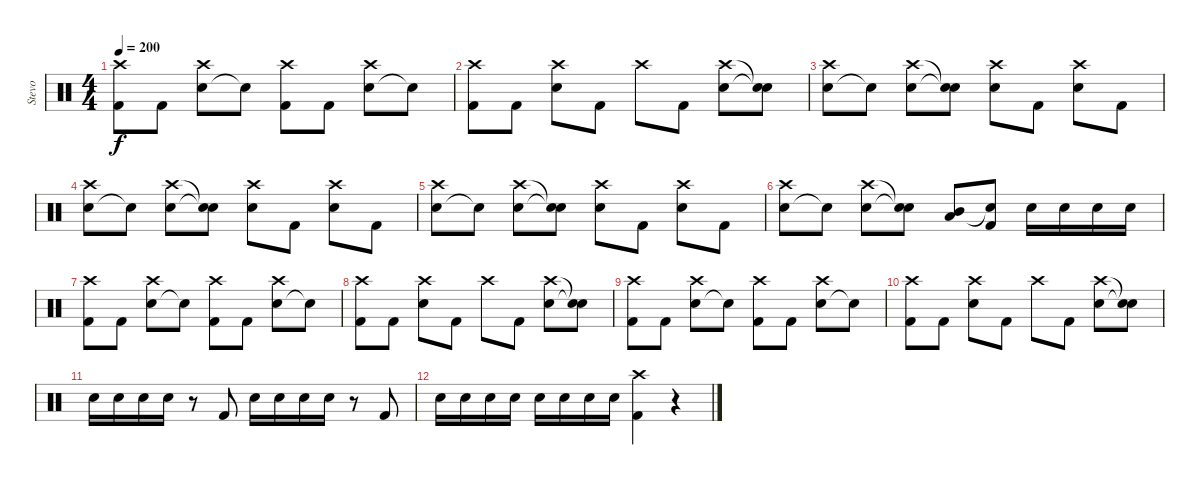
\track ("Stevo" "Stevo") {instrument percussion}
\staff {score}
\articulation defaults
\ts (4 4)
\tempo 200
\clef neutral
\ks c
("Kick (hit) 2" "Crash high (hit)").8{dy f} "Kick (hit) 2".8 ("Snare (hit) 2" "Crash high (hit)").8 "Snare (hit)"{t}.8 ("Kick (hit) 2" "Crash high (hit)").8 "Kick (hit) 2".8 ("Snare (hit) 2" "Crash high (hit)").8 "Snare (hit)"{t}.8 |
("Kick (hit) 2" "Crash high (hit)").8 "Kick (hit) 2".8 ("Snare (hit) 2" "Crash high (hit)").8 "Kick (hit) 2".8 "Crash high (hit)".8 "Kick (hit) 2".8 ("Snare (hit) 2" "Crash high (hit)").8 ("Snare (hit)"{t} "Snare (hit)"{t}).8 |
("Snare (hit) 2" "Crash high (hit)").8 "Snare (hit)"{t}.8 ("Snare (hit) 2" "Crash high (hit)").8 ("Snare (hit)"{t} "Snare (hit)"{t}).8 ("Snare (hit) 2" "Crash high (hit)").8 "Kick (hit) 2".8 ("Snare (hit) 2" "Crash high (hit)").8 "Kick (hit) 2".8 |
("Snare (hit) 2" "Crash high (hit)").8 "Snare (hit)"{t}.8 ("Snare (hit) 2" "Crash high (hit)").8 ("Snare (hit)"{t} "Snare (hit)"{t}).8 ("Snare (hit) 2" "Crash high (hit)").8 "Kick (hit) 2".8 ("Snare (hit) 2" "Crash high (hit)").8 "Kick (hit) 2".8 |
("Snare (hit) 2" "Crash high (hit)").8 "Snare (hit)"{t}.8 ("Snare (hit) 2" "Crash high (hit)").8 ("Snare (hit)"{t} "Snare (hit)"{t}).8 ("Snare (hit) 2" "Crash high (hit)").8 "Kick (hit) 2".8 ("Snare (hit) 2" "Crash high (hit)").8 "Kick (hit) 2".8 |
("Snare (hit) 2" "Crash high (hit)").8 "Snare (hit)"{t}.8 ("Snare (hit) 2" "Crash high (hit)").8 ("Snare (hit)"{t} "Snare (hit)"{t}).8 ("Mid Tom (hit)" "Low Tom (hit)").8 ("Kick (hit) 2" "Snare (hit) 2"{t}).8 "Snare (hit) 2".16 "Snare (hit) 2".16 "Snare (hit) 2".16 "Snare (hit) 2".16 |
("Kick (hit) 2" "Crash high (hit)").8 "Kick (hit) 2".8 ("Snare (hit) 2" "Crash high (hit)").8 "Snare (hit)"{t}.8 ("Kick (hit) 2" "Crash high (hit)").8 "Kick (hit) 2".8 ("Snare (hit) 2" "Crash high (hit)").8 "Snare (hit)"{t}.8 |
("Kick (hit) 2" "Crash high (hit)").8 "Kick (hit) 2".8 ("Snare (hit) 2" "Crash high (hit)").8 "Kick (hit) 2".8 "Crash high (hit)".8 "Kick (hit) 2".8 ("Snare (hit) 2" "Crash high (hit)").8 ("Snare (hit)"{t} "Snare (hit)"{t}).8 |
("Kick (hit) 2" "Crash high (hit)").8 "Kick (hit) 2".8 ("Snare (hit) 2" "Crash high (hit)").8 "Snare (hit)"{t}.8 ("Kick (hit) 2" "Crash high (hit)").8 "Kick (hit) 2".8 ("Snare (hit) 2" "Crash high (hit)").8 "Snare (hit)"{t}.8 |
("Kick (hit) 2" "Crash high (hit)").8 "Kick (hit) 2".8 ("Snare (hit) 2" "Crash high (hit)").8 "Kick (hit) 2".8 "Crash high (hit)".8 "Kick (hit) 2".8 ("Snare (hit) 2" "Crash high (hit)").8 ("Snare (hit)"{t} "Snare (hit)"{t}).8 |
"Snare (hit) 2".16 "Snare (hit) 2".16 "Snare (hit) 2".16 "Snare (hit) 2".16 r.8 "Kick (hit) 2".8 "Snare (hit) 2".16 "Snare (hit) 2".16 "Snare (hit) 2".16 "Snare (hit) 2".16 r.8 "Kick (hit) 2".8 |
"Snare (hit) 2".16 "Snare (hit) 2".16 "Snare (hit) 2".16 "Snare (hit) 2".16 "Snare (hit) 2".16 "Snare (hit) 2".16 "Snare (hit) 2".16 "Snare (hit) 2".16 ("Kick (hit) 2" "Crash high (hit)").4 r.4
